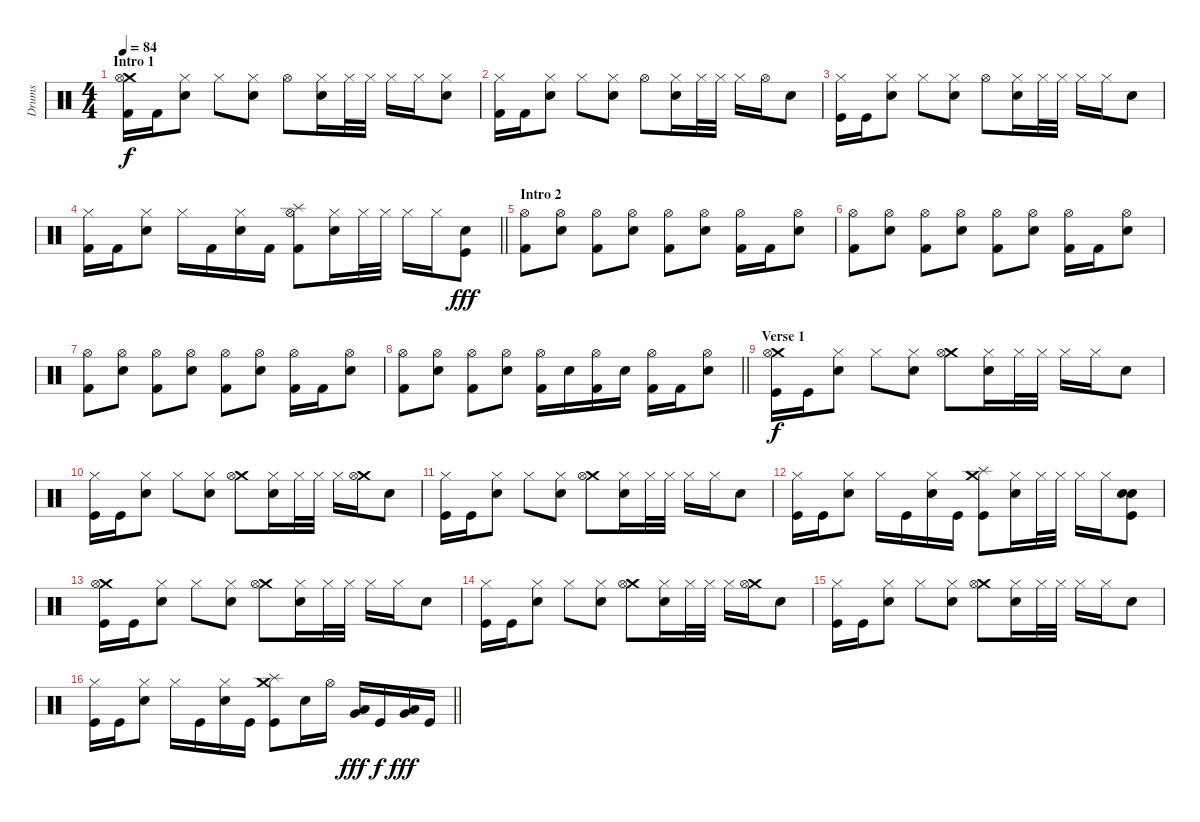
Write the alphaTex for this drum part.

\track ("Drums" "Drums") {instrument percussion}
\staff {score}
\articulation defaults
\ts (4 4)
\section ("" "Intro 1")
\tempo 84
\clef neutral
\ks c
("Crash medium (hit)" "Hi-Hat (open)" "Kick (hit) 2").16{dy f volume 13} "Kick (hit) 2".16 ("Hi-Hat (closed)" "Electric Snare (hit)").8 "Hi-Hat (closed)".8 ("Hi-Hat (closed)" "Electric Snare (hit)").8 "Hi-Hat (open)".8 ("Hi-Hat (closed)" "Electric Snare (hit)").16 "Hi-Hat (closed)".32 "Hi-Hat (closed)".32 "Hi-Hat (closed)".16 "Hi-Hat (closed)".16 ("Hi-Hat (closed)" "Electric Snare (hit)").8 |
("Hi-Hat (closed)" "Kick (hit) 2").16 "Kick (hit) 2".16 ("Hi-Hat (closed)" "Electric Snare (hit)").8 "Hi-Hat (closed)".8 ("Hi-Hat (closed)" "Electric Snare (hit)").8 "Hi-Hat (open)".8 ("Hi-Hat (closed)" "Electric Snare (hit)").16 "Hi-Hat (closed)".32 "Hi-Hat (closed)".32 "Hi-Hat (closed)".16 "Hi-Hat (open)".16 "Electric Snare (hit)".8 |
("Hi-Hat (closed)" "Kick (hit)").16 "Kick (hit)".16 ("Hi-Hat (closed)" "Electric Snare (hit)").8 "Hi-Hat (closed)".8 ("Hi-Hat (closed)" "Electric Snare (hit)").8 "Hi-Hat (open)".8 ("Hi-Hat (closed)" "Electric Snare (hit)").16 "Hi-Hat (closed)".32 "Hi-Hat (closed)".32 "Hi-Hat (closed)".16 "Hi-Hat (closed)".16 "Electric Snare (hit)".8 |
\barLineRight lightlight
("Hi-Hat (closed)" "Kick (hit) 2").16 "Kick (hit) 2".16 ("Hi-Hat (closed)" "Electric Snare (hit)").8 "Hi-Hat (closed)".16 "Kick (hit) 2".16 ("Hi-Hat (closed)" "Electric Snare (hit)").16 "Kick (hit) 2".16 ("Hi-Hat (open)" "Splash (hit)" "Kick (hit) 2").8 ("Hi-Hat (closed)" "Electric Snare (hit)").16 "Hi-Hat (closed)".32 "Hi-Hat (closed)".32 "Hi-Hat (closed)".16 "Hi-Hat (closed)".16 ("Electric Snare (hit)" "Kick (hit)").8{dy fff volume 16} |
\section ("" "Intro 2")
("Hi-Hat (open)" "Kick (hit) 2").8 ("Hi-Hat (open)" "Electric Snare (hit)").8 ("Hi-Hat (open)" "Kick (hit) 2").8 ("Hi-Hat (open)" "Electric Snare (hit)").8 ("Hi-Hat (open)" "Kick (hit) 2").8 ("Hi-Hat (open)" "Electric Snare (hit)").8 ("Hi-Hat (open)" "Kick (hit) 2").16 "Kick (hit) 2".16 ("Hi-Hat (open)" "Electric Snare (hit)").8 |
("Hi-Hat (open)" "Kick (hit) 2").8 ("Hi-Hat (open)" "Electric Snare (hit)").8 ("Hi-Hat (open)" "Kick (hit) 2").8 ("Hi-Hat (open)" "Electric Snare (hit)").8 ("Hi-Hat (open)" "Kick (hit) 2").8 ("Hi-Hat (open)" "Electric Snare (hit)").8 ("Hi-Hat (open)" "Kick (hit) 2").16 "Kick (hit) 2".16 ("Hi-Hat (open)" "Electric Snare (hit)").8 |
("Hi-Hat (open)" "Kick (hit) 2").8 ("Hi-Hat (open)" "Electric Snare (hit)").8 ("Hi-Hat (open)" "Kick (hit) 2").8 ("Hi-Hat (open)" "Electric Snare (hit)").8 ("Hi-Hat (open)" "Kick (hit) 2").8 ("Hi-Hat (open)" "Electric Snare (hit)").8 ("Hi-Hat (open)" "Kick (hit) 2").16 "Kick (hit) 2".16 ("Hi-Hat (open)" "Electric Snare (hit)").8 |
\barLineRight lightlight
("Hi-Hat (open)" "Kick (hit) 2").8 ("Hi-Hat (open)" "Electric Snare (hit)").8 ("Hi-Hat (open)" "Kick (hit) 2").8 ("Hi-Hat (open)" "Electric Snare (hit)").8 ("Hi-Hat (open)" "Kick (hit) 2").16 "Electric Snare (hit)".16 ("Hi-Hat (open)" "Kick (hit) 2").16 "Electric Snare (hit)".16 ("Hi-Hat (open)" "Kick (hit) 2").16 "Kick (hit) 2".16 ("Hi-Hat (open)" "Electric Snare (hit)").8 |
\section ("" "Verse 1")
("Crash medium (hit)" "Hi-Hat (open)" "Kick (hit)").16{dy f} "Kick (hit)".16 ("Hi-Hat (closed)" "Electric Snare (hit)").8 "Hi-Hat (closed)".8 ("Hi-Hat (closed)" "Electric Snare (hit)").8 ("Crash medium (hit)" "Hi-Hat (open)").8 ("Hi-Hat (closed)" "Electric Snare (hit)").16 "Hi-Hat (closed)".32 "Hi-Hat (closed)".32 "Hi-Hat (closed)".16 "Hi-Hat (closed)".16 "Electric Snare (hit)".8 |
("Hi-Hat (closed)" "Kick (hit)").16 "Kick (hit)".16 ("Hi-Hat (closed)" "Electric Snare (hit)").8 "Hi-Hat (closed)".8 ("Hi-Hat (closed)" "Electric Snare (hit)").8 ("Crash medium (hit)" "Hi-Hat (open)").8 ("Hi-Hat (closed)" "Electric Snare (hit)").16 "Hi-Hat (closed)".32 "Hi-Hat (closed)".32 "Hi-Hat (closed)".16 ("Crash medium (hit)" "Hi-Hat (open)").16 "Electric Snare (hit)".8 |
("Hi-Hat (closed)" "Kick (hit)").16 "Kick (hit)".16 ("Hi-Hat (closed)" "Electric Snare (hit)").8 "Hi-Hat (closed)".8 ("Hi-Hat (closed)" "Electric Snare (hit)").8 ("Crash medium (hit)" "Hi-Hat (open)").8 ("Hi-Hat (closed)" "Electric Snare (hit)").16 "Hi-Hat (closed)".32 "Hi-Hat (closed)".32 "Hi-Hat (closed)".16 "Hi-Hat (closed)".16 "Electric Snare (hit)".8 |
("Hi-Hat (closed)" "Kick (hit)").16 "Kick (hit)".16 ("Hi-Hat (closed)" "Electric Snare (hit)").8 "Hi-Hat (closed)".16 "Kick (hit)".16 ("Hi-Hat (closed)" "Electric Snare (hit)").16 "Kick (hit)".16 ("Crash medium (hit)" "Splash (hit)" "Kick (hit)").8 ("Hi-Hat (closed)" "Electric Snare (hit)").16 "Hi-Hat (closed)".32 "Hi-Hat (closed)".32 "Hi-Hat (closed)".16 "Hi-Hat (closed)".16 ("Electric Snare (hit)" "Electric Snare (hit)" "Kick (hit)").8 |
("Crash medium (hit)" "Hi-Hat (open)" "Kick (hit)").16 "Kick (hit)".16 ("Hi-Hat (closed)" "Electric Snare (hit)").8 "Hi-Hat (closed)".8 ("Hi-Hat (closed)" "Electric Snare (hit)").8 ("Crash medium (hit)" "Hi-Hat (open)").8 ("Hi-Hat (closed)" "Electric Snare (hit)").16 "Hi-Hat (closed)".32 "Hi-Hat (closed)".32 "Hi-Hat (closed)".16 "Hi-Hat (closed)".16 "Electric Snare (hit)".8 |
("Hi-Hat (closed)" "Kick (hit)").16 "Kick (hit)".16 ("Hi-Hat (closed)" "Electric Snare (hit)").8 "Hi-Hat (closed)".8 ("Hi-Hat (closed)" "Electric Snare (hit)").8 ("Crash medium (hit)" "Hi-Hat (open)").8 ("Hi-Hat (closed)" "Electric Snare (hit)").16 "Hi-Hat (closed)".32 "Hi-Hat (closed)".32 "Hi-Hat (closed)".16 ("Crash medium (hit)" "Hi-Hat (open)").16 "Electric Snare (hit)".8 |
("Hi-Hat (closed)" "Kick (hit)").16 "Kick (hit)".16 ("Hi-Hat (closed)" "Electric Snare (hit)").8 "Hi-Hat (closed)".8 ("Hi-Hat (closed)" "Electric Snare (hit)").8 ("Crash medium (hit)" "Hi-Hat (open)").8 ("Hi-Hat (closed)" "Electric Snare (hit)").16 "Hi-Hat (closed)".32 "Hi-Hat (closed)".32 "Hi-Hat (closed)".16 "Hi-Hat (closed)".16 "Electric Snare (hit)".8 |
\barLineRight lightlight
("Hi-Hat (closed)" "Kick (hit)").16 "Kick (hit)".16 ("Hi-Hat (closed)" "Electric Snare (hit)").8 "Hi-Hat (closed)".16 "Kick (hit)".16 ("Hi-Hat (closed)" "Electric Snare (hit)").16 "Kick (hit)".16 ("Crash medium (hit)" "Splash (hit)" "Kick (hit)").8 "Electric Snare (hit)".16 "Hi-Hat (open)".16 ("Very Low Tom (hit)" "Low Tom (hit)").16{dy fff} "Kick (hit)".16{dy f} ("Low Floor Tom (hit)" "Very Low Tom (hit)").16{dy fff} "Kick (hit)".16
